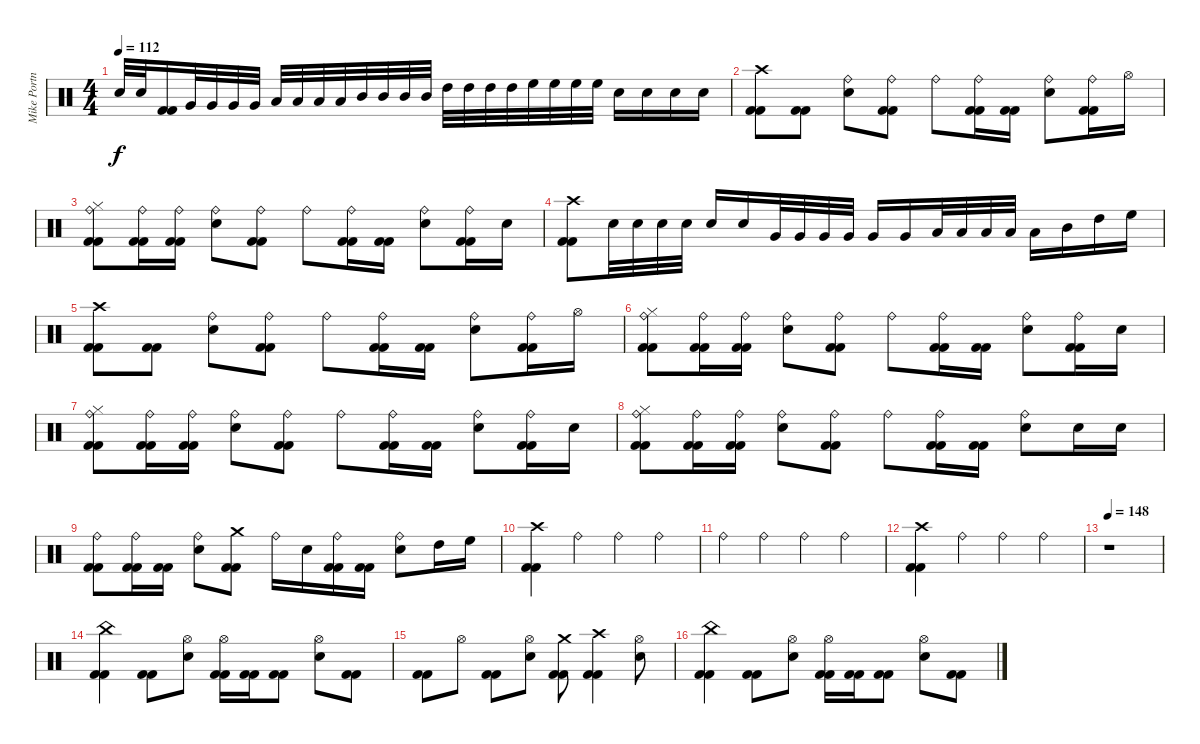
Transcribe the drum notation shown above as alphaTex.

\track ("Mike Portnoy - Drum" "Mike Portn") {instrument percussion}
\staff {score}
\articulation defaults
\ts (4 4)
\tempo 112
\clef neutral
\ks c "Snare (hit) 2".32{dy f} "Snare (hit) 2".32
("Kick (hit) 2" "Kick (hit) 2").16 "Very Low Tom (hit)".32 "Very Low Tom (hit)".32 "Very Low Tom (hit)".32 "Very Low Tom (hit)".32 "Low Tom (hit)".32 "Low Tom (hit)".32 "Low Tom (hit)".32 "Low Tom (hit)".32 "Mid Tom (hit)".32 "Mid Tom (hit)".32 "Mid Tom (hit)".32 "Mid Tom (hit)".32 "High Tom (hit)".32 "High Tom (hit)".32 "High Tom (hit)".32 "High Tom (hit)".32 "High Floor Tom (hit)".32 "High Floor Tom (hit)".32 "High Floor Tom (hit)".32 "High Floor Tom (hit)".32 "Snare (hit) 2".16 "Snare (hit) 2".16 "Snare (hit) 2".16 "Snare (hit) 2".16 |
("Crash high (hit)" "Kick (hit) 2" "Kick (hit) 2").8 ("Kick (hit) 2" "Kick (hit) 2").8 ("Ride (bell)" "Snare (hit) 2").8 ("Ride (bell)" "Kick (hit) 2" "Kick (hit) 2").8 "Ride (bell)".8 ("Ride (bell)" "Kick (hit) 2" "Kick (hit) 2").16 ("Kick (hit) 2" "Kick (hit) 2").16 ("Ride (bell)" "Snare (hit) 2").8 ("Ride (bell)" "Kick (hit) 2" "Kick (hit) 2").16 "Hi-Hat (open)".16 |
("Ride (bell)" "Hi-Hat (closed)" "Kick (hit) 2" "Kick (hit) 2").8 ("Ride (bell)" "Kick (hit) 2" "Kick (hit) 2").16 ("Ride (bell)" "Kick (hit) 2" "Kick (hit) 2").16 ("Ride (bell)" "Snare (hit) 2").8 ("Ride (bell)" "Kick (hit) 2" "Kick (hit) 2").8 "Ride (bell)".8 ("Ride (bell)" "Kick (hit) 2" "Kick (hit) 2").16 ("Kick (hit) 2" "Kick (hit) 2").16 ("Ride (bell)" "Snare (hit) 2").8 ("Ride (bell)" "Kick (hit) 2" "Kick (hit) 2").16 "Snare (hit) 2".16 |
("Crash high (hit)" "Kick (hit) 2" "Kick (hit) 2").8 "Snare (hit) 2".32 "Snare (hit) 2".32 "Snare (hit) 2".32 "Snare (hit) 2".32 "Snare (hit) 2".16 "Snare (hit) 2".16 "Very Low Tom (hit)".32 "Very Low Tom (hit)".32 "Very Low Tom (hit)".32 "Very Low Tom (hit)".32 "Very Low Tom (hit)".16 "Very Low Tom (hit)".16 "Low Tom (hit)".32 "Low Tom (hit)".32 "Low Tom (hit)".32 "Low Tom (hit)".32 "Low Tom (hit)".16 "Mid Tom (hit)".16 "High Tom (hit)".16 "High Floor Tom (hit)".16 |
("Crash high (hit)" "Kick (hit) 2" "Kick (hit) 2").8 ("Kick (hit) 2" "Kick (hit) 2").8 ("Ride (bell)" "Snare (hit) 2").8 ("Ride (bell)" "Kick (hit) 2" "Kick (hit) 2").8 "Ride (bell)".8 ("Ride (bell)" "Kick (hit) 2" "Kick (hit) 2").16 ("Kick (hit) 2" "Kick (hit) 2").16 ("Ride (bell)" "Snare (hit) 2").8 ("Ride (bell)" "Kick (hit) 2" "Kick (hit) 2").16 "Hi-Hat (open)".16 |
("Ride (bell)" "Hi-Hat (closed)" "Kick (hit) 2" "Kick (hit) 2").8 ("Ride (bell)" "Kick (hit) 2" "Kick (hit) 2").16 ("Ride (bell)" "Kick (hit) 2" "Kick (hit) 2").16 ("Ride (bell)" "Snare (hit) 2").8 ("Ride (bell)" "Kick (hit) 2" "Kick (hit) 2").8 "Ride (bell)".8 ("Ride (bell)" "Kick (hit) 2" "Kick (hit) 2").16 ("Kick (hit) 2" "Kick (hit) 2").16 ("Ride (bell)" "Snare (hit) 2").8 ("Ride (bell)" "Kick (hit) 2" "Kick (hit) 2").16 "Snare (hit) 2".16 |
("Ride (bell)" "Hi-Hat (closed)" "Kick (hit) 2" "Kick (hit) 2").8 ("Ride (bell)" "Kick (hit) 2" "Kick (hit) 2").16 ("Ride (bell)" "Kick (hit) 2" "Kick (hit) 2").16 ("Ride (bell)" "Snare (hit) 2").8 ("Ride (bell)" "Kick (hit) 2" "Kick (hit) 2").8 "Ride (bell)".8 ("Ride (bell)" "Kick (hit) 2" "Kick (hit) 2").16 ("Kick (hit) 2" "Kick (hit) 2").16 ("Ride (bell)" "Snare (hit) 2").8 ("Ride (bell)" "Kick (hit) 2" "Kick (hit) 2").16 "Snare (hit) 2".16 |
("Ride (bell)" "Hi-Hat (closed)" "Kick (hit) 2" "Kick (hit) 2").8 ("Ride (bell)" "Kick (hit) 2" "Kick (hit) 2").16 ("Ride (bell)" "Kick (hit) 2" "Kick (hit) 2").16 ("Ride (bell)" "Snare (hit) 2").8 ("Ride (bell)" "Kick (hit) 2" "Kick (hit) 2").8 "Ride (bell)".8 ("Ride (bell)" "Kick (hit) 2" "Kick (hit) 2").16 ("Kick (hit) 2" "Kick (hit) 2").16 ("Ride (bell)" "Snare (hit) 2").8 "Snare (hit) 2".16 "Snare (hit) 2".16 |
("Ride (bell)" "Kick (hit) 2" "Kick (hit) 2").8 ("Ride (bell)" "Kick (hit) 2" "Kick (hit) 2").16 ("Kick (hit) 2" "Kick (hit) 2").16 ("Ride (bell)" "Snare (hit) 2").8 ("Crash medium (hit)" "Kick (hit) 2" "Kick (hit) 2").8 "Ride (bell)".16 "Snare (hit) 2".16 ("Ride (bell)" "Kick (hit) 2" "Kick (hit) 2").16 ("Kick (hit) 2" "Kick (hit) 2").16 ("Ride (bell)" "Snare (hit) 2").8 "High Tom (hit)".16 "High Floor Tom (hit)".16 |
("Crash high (hit)" "Kick (hit) 2" "Kick (hit) 2").4 "Ride (bell)".4 "Ride (bell)".4 "Ride (bell)".4 |
"Ride (bell)".4 "Ride (bell)".4 "Ride (bell)".4 "Ride (bell)".4 |
("Crash high (hit)" "Kick (hit) 2" "Kick (hit) 2").4 "Ride (bell)".4 "Ride (bell)".4 "Ride (bell)".4 |
\tempo 148
r.1 |
("China (hit)" "Kick (hit) 2" "Kick (hit) 2").4 ("Kick (hit) 2" "Kick (hit) 2").8 ("Hi-Hat (open)" "Snare (hit) 2").8 ("Hi-Hat (open)" "Kick (hit) 2" "Kick (hit) 2").16 ("Kick (hit) 2" "Kick (hit) 2").16 ("Kick (hit) 2" "Kick (hit) 2").8 ("Hi-Hat (open)" "Snare (hit) 2").8 ("Kick (hit) 2" "Kick (hit) 2").8 |
("Kick (hit) 2" "Kick (hit) 2").8 "Hi-Hat (open)".8 ("Kick (hit) 2" "Kick (hit) 2").8 ("Hi-Hat (open)" "Snare (hit) 2").8 ("Crash medium (hit)" "Kick (hit) 2" "Kick (hit) 2").8 ("Crash high (hit)" "Kick (hit) 2" "Kick (hit) 2").4 ("Hi-Hat (open)" "Snare (hit) 2").8 |
("China (hit)" "Kick (hit) 2" "Kick (hit) 2").4 ("Kick (hit) 2" "Kick (hit) 2").8 ("Hi-Hat (open)" "Snare (hit) 2").8 ("Hi-Hat (open)" "Kick (hit) 2" "Kick (hit) 2").16 ("Kick (hit) 2" "Kick (hit) 2").16 ("Kick (hit) 2" "Kick (hit) 2").8 ("Hi-Hat (open)" "Snare (hit) 2").8 ("Kick (hit) 2" "Kick (hit) 2").8
